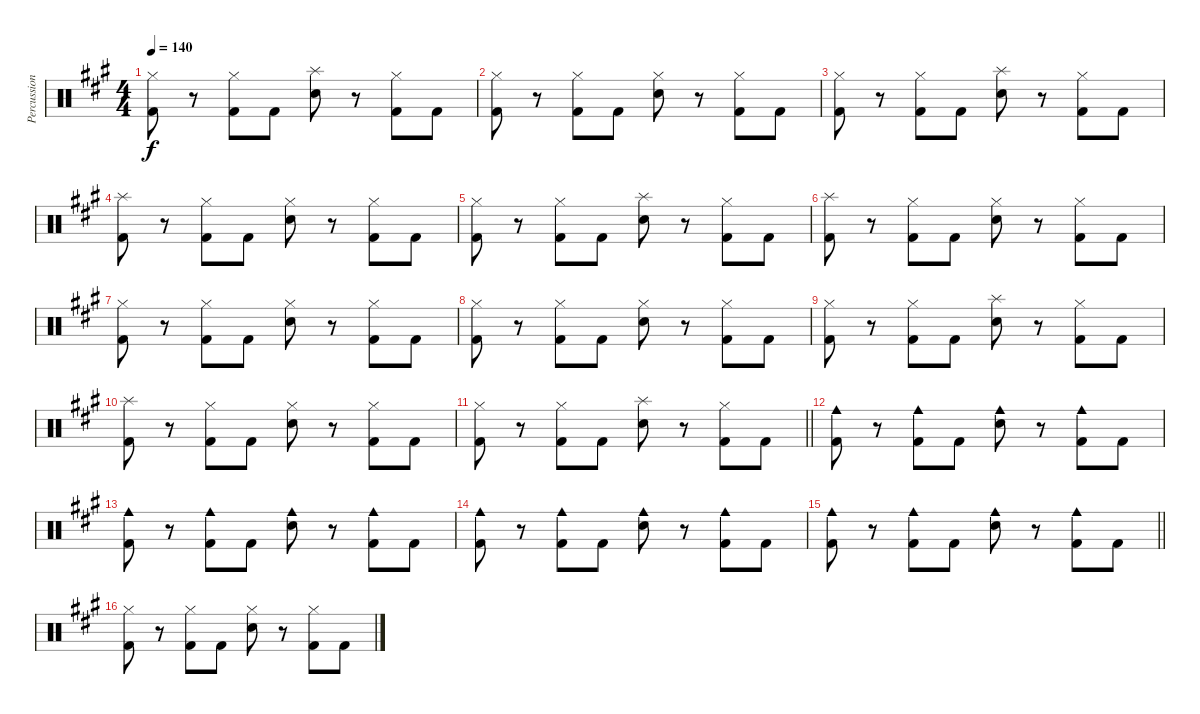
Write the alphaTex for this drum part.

\track ("Percussion" "Percussion") {instrument percussion}
\staff {score}
\articulation defaults
\ts (4 4)
\tempo 140
\clef neutral
\ks a
("Hi-Hat (closed)" "Kick (hit) 2").8{dy f} r.8 ("Hi-Hat (closed)" "Kick (hit) 2").8 "Kick (hit) 2".8 ("Splash (hit)" "Snare (hit) 2").8 r.8 ("Hi-Hat (closed)" "Kick (hit) 2").8 "Kick (hit) 2".8 |
("Hi-Hat (closed)" "Kick (hit) 2").8 r.8 ("Hi-Hat (closed)" "Kick (hit) 2").8 "Kick (hit) 2".8 ("Hi-Hat (closed)" "Snare (hit) 2").8 r.8 ("Hi-Hat (closed)" "Kick (hit) 2").8 "Kick (hit) 2".8 |
("Hi-Hat (closed)" "Kick (hit) 2").8 r.8 ("Hi-Hat (closed)" "Kick (hit) 2").8 "Kick (hit) 2".8 ("Splash (hit)" "Snare (hit) 2").8 r.8 ("Hi-Hat (closed)" "Kick (hit) 2").8 "Kick (hit) 2".8 |
("Splash (hit)" "Kick (hit) 2").8 r.8 ("Hi-Hat (closed)" "Kick (hit) 2").8 "Kick (hit) 2".8 ("Hi-Hat (closed)" "Snare (hit) 2").8 r.8 ("Hi-Hat (closed)" "Kick (hit) 2").8 "Kick (hit) 2".8 |
("Hi-Hat (closed)" "Kick (hit) 2").8 r.8 ("Hi-Hat (closed)" "Kick (hit) 2").8 "Kick (hit) 2".8 ("Splash (hit)" "Snare (hit) 2").8 r.8 ("Hi-Hat (closed)" "Kick (hit) 2").8 "Kick (hit) 2".8 |
("Splash (hit)" "Kick (hit) 2").8 r.8 ("Hi-Hat (closed)" "Kick (hit) 2").8 "Kick (hit) 2".8 ("Hi-Hat (closed)" "Snare (hit) 2").8 r.8 ("Hi-Hat (closed)" "Kick (hit) 2").8 "Kick (hit) 2".8 |
("Hi-Hat (closed)" "Kick (hit) 2").8 r.8 ("Hi-Hat (closed)" "Kick (hit) 2").8 "Kick (hit) 2".8 ("Hi-Hat (closed)" "Snare (hit) 2").8 r.8 ("Hi-Hat (closed)" "Kick (hit) 2").8 "Kick (hit) 2".8 |
("Hi-Hat (closed)" "Kick (hit) 2").8 r.8 ("Hi-Hat (closed)" "Kick (hit) 2").8 "Kick (hit) 2".8 ("Hi-Hat (closed)" "Snare (hit) 2").8 r.8 ("Hi-Hat (closed)" "Kick (hit) 2").8 "Kick (hit) 2".8 |
("Hi-Hat (closed)" "Kick (hit) 2").8 r.8 ("Hi-Hat (closed)" "Kick (hit) 2").8 "Kick (hit) 2".8 ("Splash (hit)" "Snare (hit) 2").8 r.8 ("Hi-Hat (closed)" "Kick (hit) 2").8 "Kick (hit) 2".8 |
("Splash (hit)" "Kick (hit) 2").8 r.8 ("Hi-Hat (closed)" "Kick (hit) 2").8 "Kick (hit) 2".8 ("Hi-Hat (closed)" "Snare (hit) 2").8 r.8 ("Hi-Hat (closed)" "Kick (hit) 2").8 "Kick (hit) 2".8 |
\barLineRight lightlight
("Hi-Hat (closed)" "Kick (hit) 2").8 r.8 ("Hi-Hat (closed)" "Kick (hit) 2").8 "Kick (hit) 2".8 ("Splash (hit)" "Snare (hit) 2").8 r.8 ("Hi-Hat (closed)" "Kick (hit) 2").8 "Kick (hit) 2".8 |
("Cowbell medium (hit)" "Kick (hit) 2").8 r.8 ("Cowbell medium (hit)" "Kick (hit) 2").8 "Kick (hit) 2".8 ("Cowbell medium (hit)" "Snare (hit) 2").8 r.8 ("Cowbell medium (hit)" "Kick (hit) 2").8 "Kick (hit) 2".8 |
("Cowbell medium (hit)" "Kick (hit) 2").8 r.8 ("Cowbell medium (hit)" "Kick (hit) 2").8 "Kick (hit) 2".8 ("Cowbell medium (hit)" "Snare (hit) 2").8 r.8 ("Cowbell medium (hit)" "Kick (hit) 2").8 "Kick (hit) 2".8 |
("Cowbell medium (hit)" "Kick (hit) 2").8 r.8 ("Cowbell medium (hit)" "Kick (hit) 2").8 "Kick (hit) 2".8 ("Cowbell medium (hit)" "Snare (hit) 2").8 r.8 ("Cowbell medium (hit)" "Kick (hit) 2").8 "Kick (hit) 2".8 |
\barLineRight lightlight
("Cowbell medium (hit)" "Kick (hit) 2").8 r.8 ("Cowbell medium (hit)" "Kick (hit) 2").8 "Kick (hit) 2".8 ("Cowbell medium (hit)" "Snare (hit) 2").8 r.8 ("Cowbell medium (hit)" "Kick (hit) 2").8 "Kick (hit) 2".8 |
("Hi-Hat (closed)" "Kick (hit) 2").8 r.8 ("Hi-Hat (closed)" "Kick (hit) 2").8 "Kick (hit) 2".8 ("Hi-Hat (closed)" "Snare (hit) 2").8 r.8 ("Hi-Hat (closed)" "Kick (hit) 2").8 "Kick (hit) 2".8
